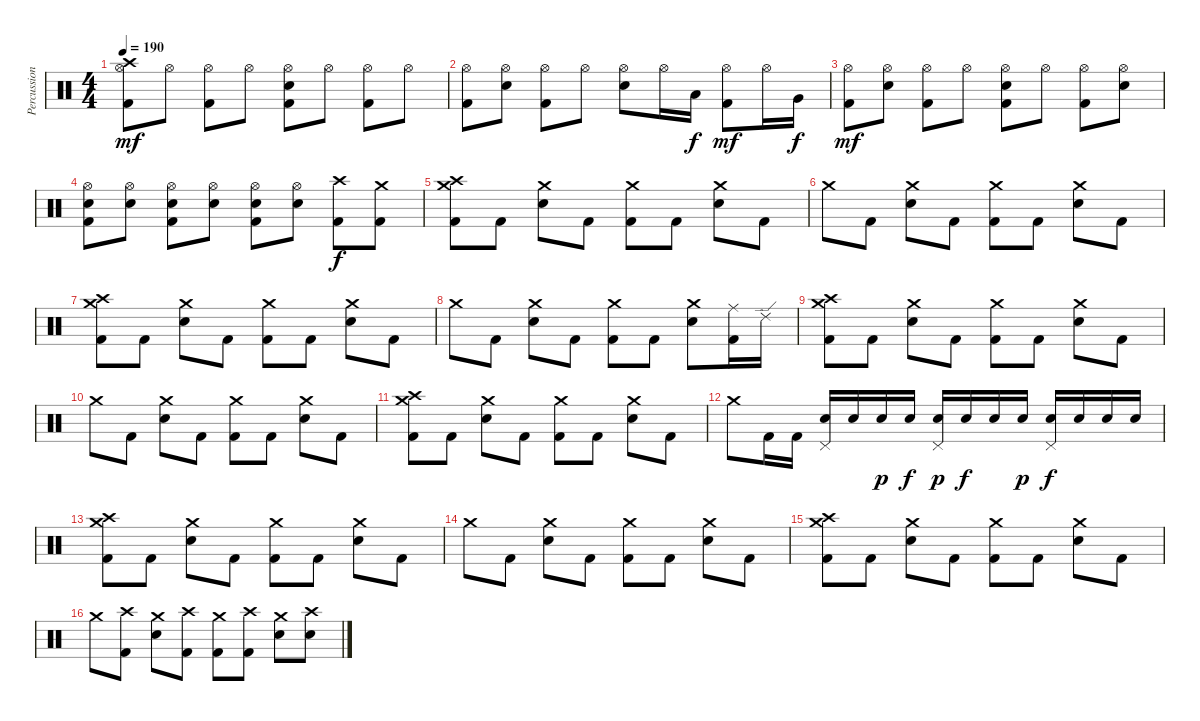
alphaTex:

\track ("Percussion" "Percussion") {instrument percussion}
\staff {score}
\articulation defaults
\ts (4 4)
\tempo 190
\clef neutral
\ks c
("Crash high (hit)" "Hi-Hat (open)" "Kick (hit) 2").8{dy mf} "Hi-Hat (open)".8 ("Hi-Hat (open)" "Kick (hit) 2").8 "Hi-Hat (open)".8 ("Hi-Hat (open)" "Electric Snare (hit)" "Kick (hit) 2").8 "Hi-Hat (open)".8 ("Hi-Hat (open)" "Kick (hit) 2").8 "Hi-Hat (open)".8 |
("Hi-Hat (open)" "Kick (hit) 2").8 ("Hi-Hat (open)" "Electric Snare (hit)").8 ("Hi-Hat (open)" "Kick (hit) 2").8 "Hi-Hat (open)".8 ("Hi-Hat (open)" "Electric Snare (hit)").8 "Hi-Hat (open)".16 "Low Tom (hit)".16{dy f} ("Hi-Hat (open)" "Kick (hit) 2").8{dy mf} "Hi-Hat (open)".16 "Very Low Tom (hit)".16{dy f} |
("Hi-Hat (open)" "Kick (hit) 2").8{dy mf} ("Hi-Hat (open)" "Electric Snare (hit)").8 ("Hi-Hat (open)" "Kick (hit) 2").8 "Hi-Hat (open)".8 ("Hi-Hat (open)" "Electric Snare (hit)" "Kick (hit) 2").8 "Hi-Hat (open)".8 ("Hi-Hat (open)" "Kick (hit) 2").8 ("Hi-Hat (open)" "Electric Snare (hit)").8 |
("Hi-Hat (open)" "Electric Snare (hit)" "Kick (hit) 2").8 ("Hi-Hat (open)" "Electric Snare (hit)").8 ("Hi-Hat (open)" "Electric Snare (hit)" "Kick (hit) 2").8 ("Hi-Hat (open)" "Electric Snare (hit)").8 ("Hi-Hat (open)" "Electric Snare (hit)" "Kick (hit) 2").8 ("Hi-Hat (open)" "Electric Snare (hit)").8 ("Crash high (hit)" "Kick (hit) 2").8{dy f} ("Crash medium (hit)" "Kick (hit) 2").8 |
("Crash high (hit)" "Crash medium (hit)" "Kick (hit) 2").8 "Kick (hit) 2".8 ("Crash medium (hit)" "Electric Snare (hit)").8 "Kick (hit) 2".8 ("Crash medium (hit)" "Kick (hit) 2").8 "Kick (hit) 2".8 ("Crash medium (hit)" "Electric Snare (hit)").8 "Kick (hit) 2".8 |
"Crash medium (hit)".8 "Kick (hit) 2".8 ("Crash medium (hit)" "Electric Snare (hit)").8 "Kick (hit) 2".8 ("Crash medium (hit)" "Kick (hit) 2").8 "Kick (hit) 2".8 ("Crash medium (hit)" "Electric Snare (hit)").8 "Kick (hit) 2".8 |
("Crash high (hit)" "Crash medium (hit)" "Kick (hit) 2").8 "Kick (hit) 2".8 ("Crash medium (hit)" "Electric Snare (hit)").8 "Kick (hit) 2".8 ("Crash medium (hit)" "Kick (hit) 2").8 "Kick (hit) 2".8 ("Crash medium (hit)" "Electric Snare (hit)").8 "Kick (hit) 2".8 |
"Crash medium (hit)".8 "Kick (hit) 2".8 ("Crash medium (hit)" "Electric Snare (hit)").8 "Kick (hit) 2".8 ("Crash medium (hit)" "Kick (hit) 2").8 "Kick (hit) 2".8 ("Crash medium (hit)" "Electric Snare (hit)").8 ("Ride (middle)" "Kick (hit) 2").16 "Ride (edge) 2".16 |
("Crash high (hit)" "Crash medium (hit)" "Kick (hit) 2").8 "Kick (hit) 2".8 ("Crash medium (hit)" "Electric Snare (hit)").8 "Kick (hit) 2".8 ("Crash medium (hit)" "Kick (hit) 2").8 "Kick (hit) 2".8 ("Crash medium (hit)" "Electric Snare (hit)").8 "Kick (hit) 2".8 |
"Crash medium (hit)".8 "Kick (hit) 2".8 ("Crash medium (hit)" "Electric Snare (hit)").8 "Kick (hit) 2".8 ("Crash medium (hit)" "Kick (hit) 2").8 "Kick (hit) 2".8 ("Crash medium (hit)" "Electric Snare (hit)").8 "Kick (hit) 2".8 |
("Crash high (hit)" "Crash medium (hit)" "Kick (hit) 2").8 "Kick (hit) 2".8 ("Crash medium (hit)" "Electric Snare (hit)").8 "Kick (hit) 2".8 ("Crash medium (hit)" "Kick (hit) 2").8 "Kick (hit) 2".8 ("Crash medium (hit)" "Electric Snare (hit)").8 "Kick (hit) 2".8 |
"Crash medium (hit)".8 "Kick (hit) 2".16 "Kick (hit) 2".16 ("Pedal Hi-Hat (hit)" "Electric Snare (hit)").16 "Electric Snare (hit)".16 "Electric Snare (hit)".16{dy p} "Electric Snare (hit)".16{dy f} ("Pedal Hi-Hat (hit)" "Electric Snare (hit)").16{dy p} "Electric Snare (hit)".16{dy f} "Electric Snare (hit)".16 "Electric Snare (hit)".16{dy p} ("Pedal Hi-Hat (hit)" "Electric Snare (hit)").16{dy f} "Electric Snare (hit)".16 "Electric Snare (hit)".16 "Electric Snare (hit)".16 |
("Crash high (hit)" "Crash medium (hit)" "Kick (hit) 2").8 "Kick (hit) 2".8 ("Crash medium (hit)" "Electric Snare (hit)").8 "Kick (hit) 2".8 ("Crash medium (hit)" "Kick (hit) 2").8 "Kick (hit) 2".8 ("Crash medium (hit)" "Electric Snare (hit)").8 "Kick (hit) 2".8 |
"Crash medium (hit)".8 "Kick (hit) 2".8 ("Crash medium (hit)" "Electric Snare (hit)").8 "Kick (hit) 2".8 ("Crash medium (hit)" "Kick (hit) 2").8 "Kick (hit) 2".8 ("Crash medium (hit)" "Electric Snare (hit)").8 "Kick (hit) 2".8 |
("Crash high (hit)" "Crash medium (hit)" "Kick (hit) 2").8 "Kick (hit) 2".8 ("Crash medium (hit)" "Electric Snare (hit)").8 "Kick (hit) 2".8 ("Crash medium (hit)" "Kick (hit) 2").8 "Kick (hit) 2".8 ("Crash medium (hit)" "Electric Snare (hit)").8 "Kick (hit) 2".8 |
"Crash medium (hit)".8 ("Crash high (hit)" "Kick (hit) 2").8 ("Crash medium (hit)" "Electric Snare (hit)").8 ("Crash high (hit)" "Kick (hit) 2").8 ("Crash medium (hit)" "Kick (hit) 2").8 ("Crash high (hit)" "Kick (hit) 2").8 ("Crash medium (hit)" "Electric Snare (hit)").8 ("Crash high (hit)" "Electric Snare (hit)").8
